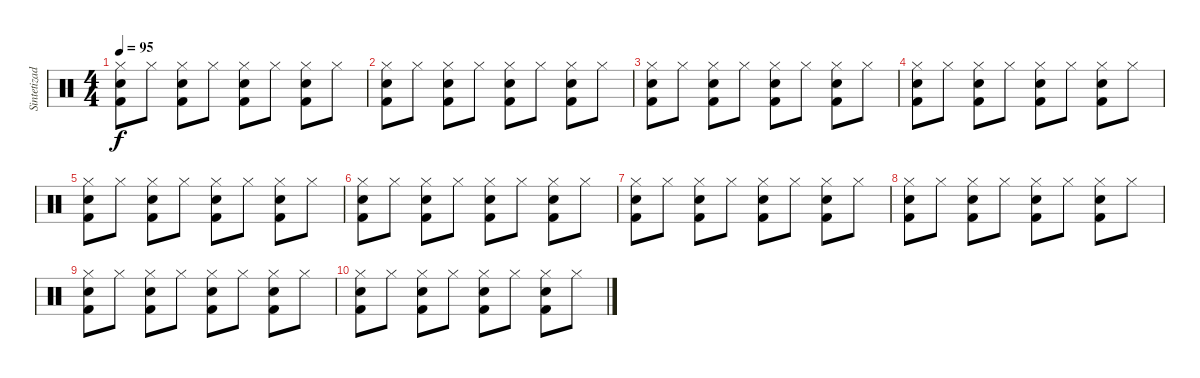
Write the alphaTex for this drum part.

\track ("Sintetizador" "Sintetizad") {instrument percussion}
\staff {score}
\articulation defaults
\ts (4 4)
\tempo 95
\clef neutral
\ks c
("Hi-Hat (closed)" "Hand Clap (hit)" "Kick (hit) 2").8{dy f} "Hi-Hat (closed)".8 ("Hi-Hat (closed)" "Hand Clap (hit)" "Kick (hit) 2").8 "Hi-Hat (closed)".8 ("Hi-Hat (closed)" "Hand Clap (hit)" "Kick (hit) 2").8 "Hi-Hat (closed)".8 ("Hi-Hat (closed)" "Hand Clap (hit)" "Kick (hit) 2").8 "Hi-Hat (closed)".8 |
("Hi-Hat (closed)" "Hand Clap (hit)" "Kick (hit) 2").8 "Hi-Hat (closed)".8 ("Hi-Hat (closed)" "Hand Clap (hit)" "Kick (hit) 2").8 "Hi-Hat (closed)".8 ("Hi-Hat (closed)" "Hand Clap (hit)" "Kick (hit) 2").8 "Hi-Hat (closed)".8 ("Hi-Hat (closed)" "Hand Clap (hit)" "Kick (hit) 2").8 "Hi-Hat (closed)".8 |
("Hi-Hat (closed)" "Hand Clap (hit)" "Kick (hit) 2").8 "Hi-Hat (closed)".8 ("Hi-Hat (closed)" "Hand Clap (hit)" "Kick (hit) 2").8 "Hi-Hat (closed)".8 ("Hi-Hat (closed)" "Hand Clap (hit)" "Kick (hit) 2").8 "Hi-Hat (closed)".8 ("Hi-Hat (closed)" "Hand Clap (hit)" "Kick (hit) 2").8 "Hi-Hat (closed)".8 |
("Hi-Hat (closed)" "Hand Clap (hit)" "Kick (hit) 2").8 "Hi-Hat (closed)".8 ("Hi-Hat (closed)" "Hand Clap (hit)" "Kick (hit) 2").8 "Hi-Hat (closed)".8 ("Hi-Hat (closed)" "Hand Clap (hit)" "Kick (hit) 2").8 "Hi-Hat (closed)".8 ("Hi-Hat (closed)" "Hand Clap (hit)" "Kick (hit) 2").8 "Hi-Hat (closed)".8 |
("Hi-Hat (closed)" "Hand Clap (hit)" "Kick (hit) 2").8 "Hi-Hat (closed)".8 ("Hi-Hat (closed)" "Hand Clap (hit)" "Kick (hit) 2").8 "Hi-Hat (closed)".8 ("Hi-Hat (closed)" "Hand Clap (hit)" "Kick (hit) 2").8 "Hi-Hat (closed)".8 ("Hi-Hat (closed)" "Hand Clap (hit)" "Kick (hit) 2").8 "Hi-Hat (closed)".8 |
("Hi-Hat (closed)" "Hand Clap (hit)" "Kick (hit) 2").8 "Hi-Hat (closed)".8 ("Hi-Hat (closed)" "Hand Clap (hit)" "Kick (hit) 2").8 "Hi-Hat (closed)".8 ("Hi-Hat (closed)" "Hand Clap (hit)" "Kick (hit) 2").8 "Hi-Hat (closed)".8 ("Hi-Hat (closed)" "Hand Clap (hit)" "Kick (hit) 2").8 "Hi-Hat (closed)".8 |
("Hi-Hat (closed)" "Hand Clap (hit)" "Kick (hit) 2").8 "Hi-Hat (closed)".8 ("Hi-Hat (closed)" "Hand Clap (hit)" "Kick (hit) 2").8 "Hi-Hat (closed)".8 ("Hi-Hat (closed)" "Hand Clap (hit)" "Kick (hit) 2").8 "Hi-Hat (closed)".8 ("Hi-Hat (closed)" "Hand Clap (hit)" "Kick (hit) 2").8 "Hi-Hat (closed)".8 |
("Hi-Hat (closed)" "Hand Clap (hit)" "Kick (hit) 2").8 "Hi-Hat (closed)".8 ("Hi-Hat (closed)" "Hand Clap (hit)" "Kick (hit) 2").8 "Hi-Hat (closed)".8 ("Hi-Hat (closed)" "Hand Clap (hit)" "Kick (hit) 2").8 "Hi-Hat (closed)".8 ("Hi-Hat (closed)" "Hand Clap (hit)" "Kick (hit) 2").8 "Hi-Hat (closed)".8 |
("Hi-Hat (closed)" "Hand Clap (hit)" "Kick (hit) 2").8 "Hi-Hat (closed)".8 ("Hi-Hat (closed)" "Hand Clap (hit)" "Kick (hit) 2").8 "Hi-Hat (closed)".8 ("Hi-Hat (closed)" "Hand Clap (hit)" "Kick (hit) 2").8 "Hi-Hat (closed)".8 ("Hi-Hat (closed)" "Hand Clap (hit)" "Kick (hit) 2").8 "Hi-Hat (closed)".8 |
("Hi-Hat (closed)" "Hand Clap (hit)" "Kick (hit) 2").8 "Hi-Hat (closed)".8 ("Hi-Hat (closed)" "Hand Clap (hit)" "Kick (hit) 2").8 "Hi-Hat (closed)".8 ("Hi-Hat (closed)" "Hand Clap (hit)" "Kick (hit) 2").8 "Hi-Hat (closed)".8 ("Hi-Hat (closed)" "Hand Clap (hit)" "Kick (hit) 2").8 "Hi-Hat (closed)".8
